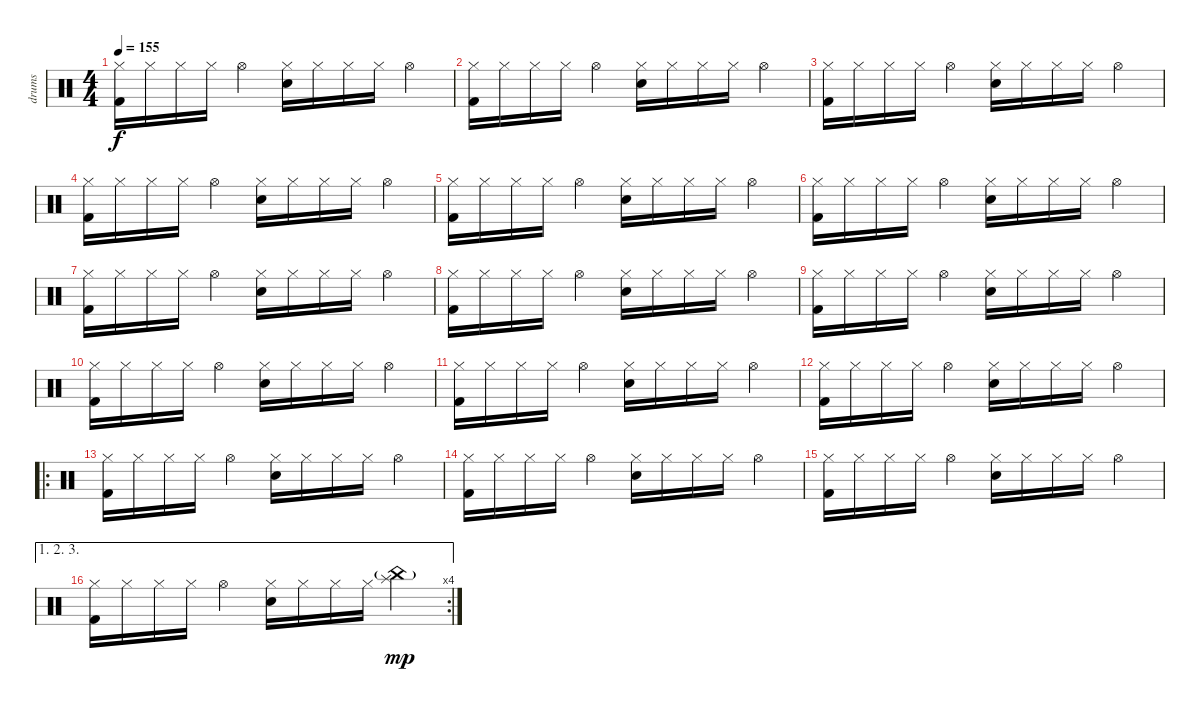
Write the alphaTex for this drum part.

\track ("drums" "drums") {instrument percussion}
\staff {score}
\articulation defaults
\ts (4 4)
\tempo 155
\clef neutral
\ks c
("Hi-Hat (closed)" "Kick (hit) 2").16{dy f} "Hi-Hat (closed)".16 "Hi-Hat (closed)".16 "Hi-Hat (closed)".16 "Hi-Hat (open)".4 ("Hi-Hat (closed)" "Electric Snare (hit)").16 "Hi-Hat (closed)".16 "Hi-Hat (closed)".16 "Hi-Hat (closed)".16 "Hi-Hat (open)".4 |
("Hi-Hat (closed)" "Kick (hit) 2").16 "Hi-Hat (closed)".16 "Hi-Hat (closed)".16 "Hi-Hat (closed)".16 "Hi-Hat (open)".4 ("Hi-Hat (closed)" "Electric Snare (hit)").16 "Hi-Hat (closed)".16 "Hi-Hat (closed)".16 "Hi-Hat (closed)".16 "Hi-Hat (open)".4 |
("Hi-Hat (closed)" "Kick (hit) 2").16 "Hi-Hat (closed)".16 "Hi-Hat (closed)".16 "Hi-Hat (closed)".16 "Hi-Hat (open)".4 ("Hi-Hat (closed)" "Electric Snare (hit)").16 "Hi-Hat (closed)".16 "Hi-Hat (closed)".16 "Hi-Hat (closed)".16 "Hi-Hat (open)".4 |
("Hi-Hat (closed)" "Kick (hit) 2").16 "Hi-Hat (closed)".16 "Hi-Hat (closed)".16 "Hi-Hat (closed)".16 "Hi-Hat (open)".4 ("Hi-Hat (closed)" "Electric Snare (hit)").16 "Hi-Hat (closed)".16 "Hi-Hat (closed)".16 "Hi-Hat (closed)".16 "Hi-Hat (open)".4 |
("Hi-Hat (closed)" "Kick (hit) 2").16 "Hi-Hat (closed)".16 "Hi-Hat (closed)".16 "Hi-Hat (closed)".16 "Hi-Hat (open)".4 ("Hi-Hat (closed)" "Electric Snare (hit)").16 "Hi-Hat (closed)".16 "Hi-Hat (closed)".16 "Hi-Hat (closed)".16 "Hi-Hat (open)".4 |
("Hi-Hat (closed)" "Kick (hit) 2").16 "Hi-Hat (closed)".16 "Hi-Hat (closed)".16 "Hi-Hat (closed)".16 "Hi-Hat (open)".4 ("Hi-Hat (closed)" "Electric Snare (hit)").16 "Hi-Hat (closed)".16 "Hi-Hat (closed)".16 "Hi-Hat (closed)".16 "Hi-Hat (open)".4 |
("Hi-Hat (closed)" "Kick (hit) 2").16 "Hi-Hat (closed)".16 "Hi-Hat (closed)".16 "Hi-Hat (closed)".16 "Hi-Hat (open)".4 ("Hi-Hat (closed)" "Electric Snare (hit)").16 "Hi-Hat (closed)".16 "Hi-Hat (closed)".16 "Hi-Hat (closed)".16 "Hi-Hat (open)".4 |
("Hi-Hat (closed)" "Kick (hit) 2").16 "Hi-Hat (closed)".16 "Hi-Hat (closed)".16 "Hi-Hat (closed)".16 "Hi-Hat (open)".4 ("Hi-Hat (closed)" "Electric Snare (hit)").16 "Hi-Hat (closed)".16 "Hi-Hat (closed)".16 "Hi-Hat (closed)".16 "Hi-Hat (open)".4 |
("Hi-Hat (closed)" "Kick (hit) 2").16 "Hi-Hat (closed)".16 "Hi-Hat (closed)".16 "Hi-Hat (closed)".16 "Hi-Hat (open)".4 ("Hi-Hat (closed)" "Electric Snare (hit)").16 "Hi-Hat (closed)".16 "Hi-Hat (closed)".16 "Hi-Hat (closed)".16 "Hi-Hat (open)".4 |
("Hi-Hat (closed)" "Kick (hit) 2").16 "Hi-Hat (closed)".16 "Hi-Hat (closed)".16 "Hi-Hat (closed)".16 "Hi-Hat (open)".4 ("Hi-Hat (closed)" "Electric Snare (hit)").16 "Hi-Hat (closed)".16 "Hi-Hat (closed)".16 "Hi-Hat (closed)".16 "Hi-Hat (open)".4 |
("Hi-Hat (closed)" "Kick (hit) 2").16 "Hi-Hat (closed)".16 "Hi-Hat (closed)".16 "Hi-Hat (closed)".16 "Hi-Hat (open)".4 ("Hi-Hat (closed)" "Electric Snare (hit)").16 "Hi-Hat (closed)".16 "Hi-Hat (closed)".16 "Hi-Hat (closed)".16 "Hi-Hat (open)".4 |
("Hi-Hat (closed)" "Kick (hit) 2").16 "Hi-Hat (closed)".16 "Hi-Hat (closed)".16 "Hi-Hat (closed)".16 "Hi-Hat (open)".4 ("Hi-Hat (closed)" "Electric Snare (hit)").16 "Hi-Hat (closed)".16 "Hi-Hat (closed)".16 "Hi-Hat (closed)".16 "Hi-Hat (open)".4 |
\ro
("Hi-Hat (closed)" "Kick (hit) 2").16 "Hi-Hat (closed)".16 "Hi-Hat (closed)".16 "Hi-Hat (closed)".16 "Hi-Hat (open)".4 ("Hi-Hat (closed)" "Electric Snare (hit)").16 "Hi-Hat (closed)".16 "Hi-Hat (closed)".16 "Hi-Hat (closed)".16 "Hi-Hat (open)".4 |
("Hi-Hat (closed)" "Kick (hit) 2").16 "Hi-Hat (closed)".16 "Hi-Hat (closed)".16 "Hi-Hat (closed)".16 "Hi-Hat (open)".4 ("Hi-Hat (closed)" "Electric Snare (hit)").16 "Hi-Hat (closed)".16 "Hi-Hat (closed)".16 "Hi-Hat (closed)".16 "Hi-Hat (open)".4 |
("Hi-Hat (closed)" "Kick (hit) 2").16 "Hi-Hat (closed)".16 "Hi-Hat (closed)".16 "Hi-Hat (closed)".16 "Hi-Hat (open)".4 ("Hi-Hat (closed)" "Electric Snare (hit)").16 "Hi-Hat (closed)".16 "Hi-Hat (closed)".16 "Hi-Hat (closed)".16 "Hi-Hat (open)".4 |
\ae (1 2 3)
\rc 4
("Hi-Hat (closed)" "Kick (hit) 2").16 "Hi-Hat (closed)".16 "Hi-Hat (closed)".16 "Hi-Hat (closed)".16 "Hi-Hat (open)".4 ("Hi-Hat (closed)" "Electric Snare (hit)").16 "Hi-Hat (closed)".16 "Hi-Hat (closed)".16 "Hi-Hat (closed)".16 ("China (hit)"{g} "Splash (hit)").4{dy mp}
